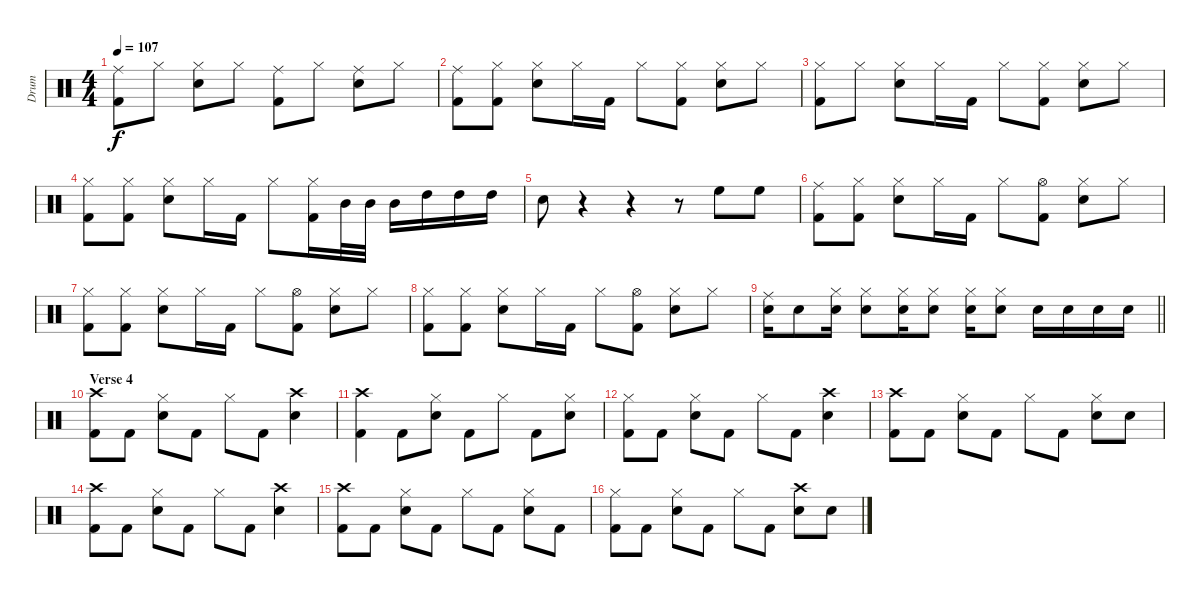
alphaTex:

\track ("Drum" "Drum") {instrument percussion}
\staff {score}
\articulation defaults
\ts (4 4)
\tempo 107
\clef neutral
\ks c
("Ride (middle)" "Kick (hit) 2").8{dy f} "Hi-Hat (closed)".8 ("Hi-Hat (closed)" "Snare (hit) 2").8 "Hi-Hat (closed)".8 ("Ride (middle)" "Kick (hit) 2").8 "Hi-Hat (closed)".8 ("Ride (middle)" "Snare (hit) 2").8 "Hi-Hat (closed)".8 |
("Ride (middle)" "Kick (hit) 2").8 ("Hi-Hat (closed)" "Kick (hit) 2").8 ("Hi-Hat (closed)" "Snare (hit) 2").8 "Hi-Hat (closed)".16 "Kick (hit) 2".16 "Hi-Hat (closed)".8 ("Hi-Hat (closed)" "Kick (hit) 2").8 ("Hi-Hat (closed)" "Snare (hit) 2").8 "Hi-Hat (closed)".8 |
("Hi-Hat (closed)" "Kick (hit) 2").8 "Hi-Hat (closed)".8 ("Hi-Hat (closed)" "Snare (hit) 2").8 "Hi-Hat (closed)".16 "Kick (hit) 2".16 "Hi-Hat (closed)".8 ("Hi-Hat (closed)" "Kick (hit) 2").8 ("Hi-Hat (closed)" "Snare (hit) 2").8 "Hi-Hat (closed)".8 |
("Hi-Hat (closed)" "Kick (hit) 2").8 ("Hi-Hat (closed)" "Kick (hit) 2").8 ("Hi-Hat (closed)" "Snare (hit) 2").8 "Hi-Hat (closed)".16 "Kick (hit) 2".16 "Hi-Hat (closed)".8 ("Hi-Hat (closed)" "Kick (hit) 2").16 "Mid Tom (hit)".32 "Mid Tom (hit)".32 "Mid Tom (hit)".16 "High Tom (hit)".16 "High Tom (hit)".16 "High Tom (hit)".16 |
"Snare (hit) 2".8 r.4 r.4 r.8 "High Floor Tom (hit)".8 "High Floor Tom (hit)".8 |
("Ride (middle)" "Kick (hit) 2").8 ("Hi-Hat (closed)" "Kick (hit) 2").8 ("Hi-Hat (closed)" "Snare (hit) 2").8 "Hi-Hat (closed)".16 "Kick (hit) 2".16 "Hi-Hat (closed)".8 ("Hi-Hat (open)" "Kick (hit) 2").8 ("Hi-Hat (closed)" "Snare (hit) 2").8 "Hi-Hat (closed)".8 |
("Hi-Hat (closed)" "Kick (hit) 2").8 ("Hi-Hat (closed)" "Kick (hit) 2").8 ("Hi-Hat (closed)" "Snare (hit) 2").8 "Hi-Hat (closed)".16 "Kick (hit) 2".16 "Hi-Hat (closed)".8 ("Hi-Hat (open)" "Kick (hit) 2").8 ("Hi-Hat (closed)" "Snare (hit) 2").8 "Hi-Hat (closed)".8 |
("Hi-Hat (closed)" "Kick (hit) 2").8 ("Hi-Hat (closed)" "Kick (hit) 2").8 ("Hi-Hat (closed)" "Snare (hit) 2").8 "Hi-Hat (closed)".16 "Kick (hit) 2".16 "Hi-Hat (closed)".8 ("Hi-Hat (open)" "Kick (hit) 2").8 ("Hi-Hat (closed)" "Snare (hit) 2").8 "Hi-Hat (closed)".8 |
\barLineRight lightlight
("Ride (middle)" "Snare (hit) 2").16 "Snare (hit) 2".8 ("Hi-Hat (closed)" "Snare (hit) 2").16 ("Hi-Hat (closed)" "Snare (hit) 2").8 ("Hi-Hat (closed)" "Snare (hit) 2").16 ("Hi-Hat (closed)" "Snare (hit) 2").8 ("Hi-Hat (closed)" "Snare (hit) 2").16 ("Hi-Hat (closed)" "Snare (hit) 2").8 "Snare (hit) 2".16 "Snare (hit) 2".16 "Snare (hit) 2".16 "Snare (hit) 2".16 |
\section ("" "Verse 4")
("Crash high (hit)" "Kick (hit) 2").8 "Kick (hit) 2".8 ("Hi-Hat (closed)" "Snare (hit) 2").8 "Kick (hit) 2".8 "Hi-Hat (closed)".8 "Kick (hit) 2".8 ("Crash high (hit)" "Snare (hit) 2").4 |
("Crash high (hit)" "Kick (hit) 2").4 "Kick (hit) 2".8 ("Hi-Hat (closed)" "Snare (hit) 2").8 "Kick (hit) 2".8 "Hi-Hat (closed)".8 "Kick (hit) 2".8 ("Hi-Hat (closed)" "Snare (hit) 2").8 |
("Hi-Hat (closed)" "Kick (hit) 2").8 "Kick (hit) 2".8 ("Hi-Hat (closed)" "Snare (hit) 2").8 "Kick (hit) 2".8 "Hi-Hat (closed)".8 "Kick (hit) 2".8 ("Crash high (hit)" "Snare (hit) 2").4 |
("Crash high (hit)" "Kick (hit) 2").8 "Kick (hit) 2".8 ("Hi-Hat (closed)" "Snare (hit) 2").8 "Kick (hit) 2".8 "Hi-Hat (closed)".8 "Kick (hit) 2".8 ("Hi-Hat (closed)" "Snare (hit) 2").8 "Snare (hit) 2".8 |
("Crash high (hit)" "Kick (hit) 2").8 "Kick (hit) 2".8 ("Hi-Hat (closed)" "Snare (hit) 2").8 "Kick (hit) 2".8 "Hi-Hat (closed)".8 "Kick (hit) 2".8 ("Crash high (hit)" "Snare (hit) 2").4 |
("Crash high (hit)" "Kick (hit) 2").8 "Kick (hit) 2".8 ("Hi-Hat (closed)" "Snare (hit) 2").8 "Kick (hit) 2".8 "Hi-Hat (closed)".8 "Kick (hit) 2".8 ("Hi-Hat (closed)" "Snare (hit) 2").8 "Kick (hit) 2".8 |
("Hi-Hat (closed)" "Kick (hit) 2").8 "Kick (hit) 2".8 ("Hi-Hat (closed)" "Snare (hit) 2").8 "Kick (hit) 2".8 "Hi-Hat (closed)".8 "Kick (hit) 2".8 ("Crash high (hit)" "Snare (hit) 2").8 "Snare (hit) 2".8
